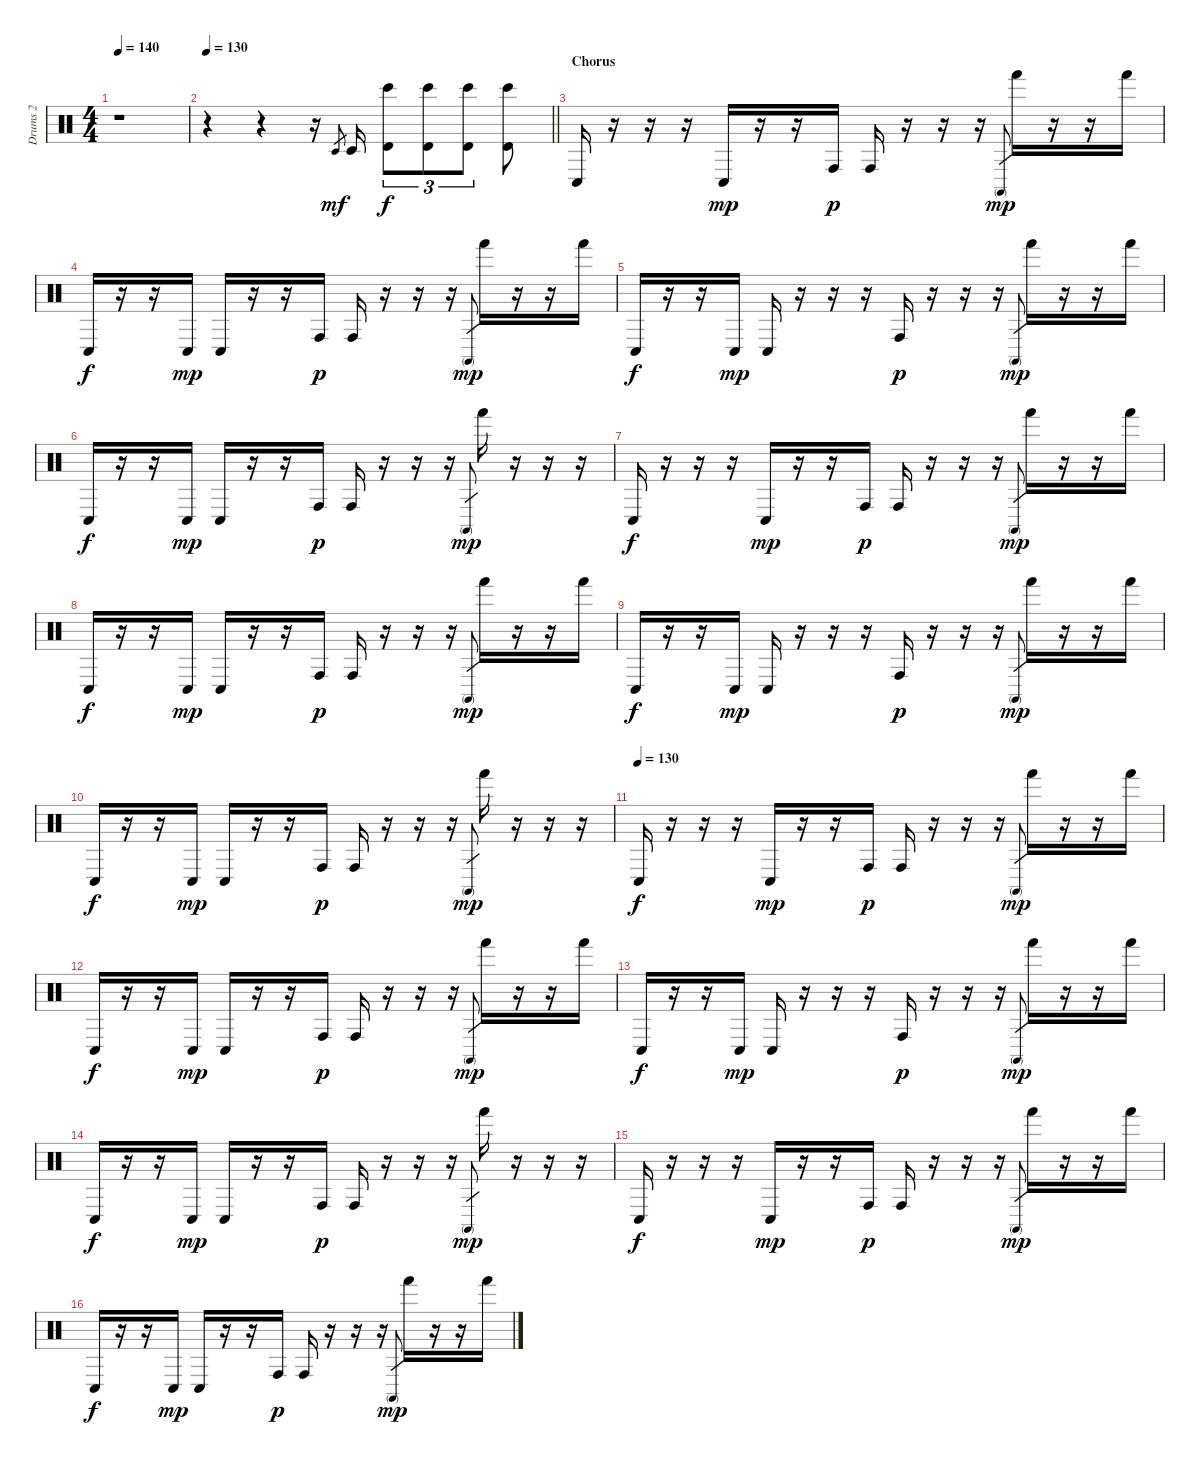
\track ("Drums 2" "Drums 2") {instrument percussion}
\staff {score}
\articulation defaults
\ts (4 4)
\tempo 140
\clef neutral
\ks c
r.1{dy f} |
\tempo 130
\barLineRight lightlight
r.4 r.4 r.16 "Timbale low (hit)".8{gr dy mf} "Timbale low (hit)".16 ("Bongo High (hit)" "Timbale high (hit)").8{tu (3 2) dy f} ("Bongo High (hit)" "Timbale high (hit)").8{tu (3 2)} ("Bongo High (hit)" "Timbale high (hit)").8{tu (3 2)} ("Bongo High (hit)" "Timbale high (hit)").8 |
\section ("" "Chorus")
"Conga low (hit)".16 r.16 r.16 r.16 "Conga low (hit)".16{dy mp} r.16 r.16 "Conga high (hit)".16{dy p} "Conga high (hit)".16 r.16 r.16 r.16 "Conga high (mute)".8{gr dy mp} "Hand (hit)".16 r.16 r.16 "Hand (hit)".16 |
"Conga low (hit)".16{dy f} r.16 r.16 "Conga low (hit)".16{dy mp} "Conga low (hit)".16 r.16 r.16 "Conga high (hit)".16{dy p} "Conga high (hit)".16 r.16 r.16 r.16 "Conga high (mute)".8{gr dy mp} "Hand (hit)".16 r.16 r.16 "Hand (hit)".16 |
"Conga low (hit)".16{dy f} r.16 r.16 "Conga low (hit)".16{dy mp} "Conga low (hit)".16 r.16 r.16 r.16 "Conga high (hit)".16{dy p} r.16 r.16 r.16 "Conga high (mute)".8{gr dy mp} "Hand (hit)".16 r.16 r.16 "Hand (hit)".16 |
"Conga low (hit)".16{dy f} r.16 r.16 "Conga low (hit)".16{dy mp} "Conga low (hit)".16 r.16 r.16 "Conga high (hit)".16{dy p} "Conga high (hit)".16 r.16 r.16 r.16 "Conga high (mute)".8{gr dy mp} "Hand (hit)".16 r.16 r.16 r.16 |
"Conga low (hit)".16{dy f} r.16 r.16 r.16 "Conga low (hit)".16{dy mp} r.16 r.16 "Conga high (hit)".16{dy p} "Conga high (hit)".16 r.16 r.16 r.16 "Conga high (mute)".8{gr dy mp} "Hand (hit)".16 r.16 r.16 "Hand (hit)".16 |
"Conga low (hit)".16{dy f} r.16 r.16 "Conga low (hit)".16{dy mp} "Conga low (hit)".16 r.16 r.16 "Conga high (hit)".16{dy p} "Conga high (hit)".16 r.16 r.16 r.16 "Conga high (mute)".8{gr dy mp} "Hand (hit)".16 r.16 r.16 "Hand (hit)".16 |
"Conga low (hit)".16{dy f} r.16 r.16 "Conga low (hit)".16{dy mp} "Conga low (hit)".16 r.16 r.16 r.16 "Conga high (hit)".16{dy p} r.16 r.16 r.16 "Conga high (mute)".8{gr dy mp} "Hand (hit)".16 r.16 r.16 "Hand (hit)".16 |
"Conga low (hit)".16{dy f} r.16 r.16 "Conga low (hit)".16{dy mp} "Conga low (hit)".16 r.16 r.16 "Conga high (hit)".16{dy p} "Conga high (hit)".16 r.16 r.16 r.16 "Conga high (mute)".8{gr dy mp} "Hand (hit)".16 r.16 r.16 r.16 |
\tempo (130)
"Conga low (hit)".16{dy f} r.16 r.16 r.16 "Conga low (hit)".16{dy mp} r.16 r.16 "Conga high (hit)".16{dy p} "Conga high (hit)".16 r.16 r.16 r.16 "Conga high (mute)".8{gr dy mp} "Hand (hit)".16 r.16 r.16 "Hand (hit)".16 |
"Conga low (hit)".16{dy f} r.16 r.16 "Conga low (hit)".16{dy mp} "Conga low (hit)".16 r.16 r.16 "Conga high (hit)".16{dy p} "Conga high (hit)".16 r.16 r.16 r.16 "Conga high (mute)".8{gr dy mp} "Hand (hit)".16 r.16 r.16 "Hand (hit)".16 |
"Conga low (hit)".16{dy f} r.16 r.16 "Conga low (hit)".16{dy mp} "Conga low (hit)".16 r.16 r.16 r.16 "Conga high (hit)".16{dy p} r.16 r.16 r.16 "Conga high (mute)".8{gr dy mp} "Hand (hit)".16 r.16 r.16 "Hand (hit)".16 |
"Conga low (hit)".16{dy f} r.16 r.16 "Conga low (hit)".16{dy mp} "Conga low (hit)".16 r.16 r.16 "Conga high (hit)".16{dy p} "Conga high (hit)".16 r.16 r.16 r.16 "Conga high (mute)".8{gr dy mp} "Hand (hit)".16 r.16 r.16 r.16 |
"Conga low (hit)".16{dy f} r.16 r.16 r.16 "Conga low (hit)".16{dy mp} r.16 r.16 "Conga high (hit)".16{dy p} "Conga high (hit)".16 r.16 r.16 r.16 "Conga high (mute)".8{gr dy mp} "Hand (hit)".16 r.16 r.16 "Hand (hit)".16 |
"Conga low (hit)".16{dy f} r.16 r.16 "Conga low (hit)".16{dy mp} "Conga low (hit)".16 r.16 r.16 "Conga high (hit)".16{dy p} "Conga high (hit)".16 r.16 r.16 r.16 "Conga high (mute)".8{gr dy mp} "Hand (hit)".16 r.16 r.16 "Hand (hit)".16
